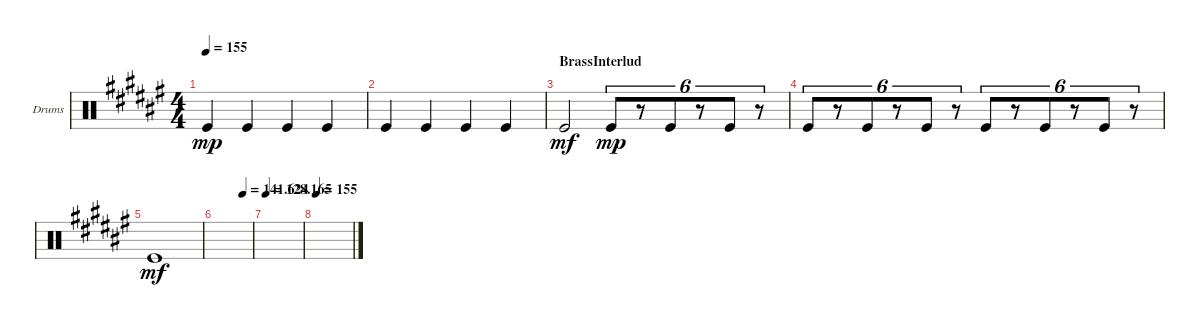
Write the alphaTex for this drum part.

\bracketExtendMode groupsimilarinstruments
\firstSystemTrackNameOrientation horizontal
\otherSystemsTrackNameOrientation horizontal
\track ("Kick" "Drums") {instrument percussion}
\staff {score}
\articulation defaults
\ts (4 4)
\tempo 155
\clef neutral
\ks f# "Kick (hit)".4{dy mp} "Kick (hit)".4 "Kick (hit)".4 "Kick (hit)".4
|
"Kick (hit)".4 "Kick (hit)".4 "Kick (hit)".4 "Kick (hit)".4 |
\section ("" "BrassInterlud")
"Kick (hit)".2{dy mf} "Kick (hit)".8{tu (6 4) dy mp} r.8{tu (6 4)} "Kick (hit)".8{tu (6 4)} r.8{tu (6 4)} "Kick (hit)".8{tu (6 4)} r.8{tu (6 4)} |
"Kick (hit)".8{tu (6 4)} r.8{tu (6 4)} "Kick (hit)".8{tu (6 4)} r.8{tu (6 4)} "Kick (hit)".8{tu (6 4)} r.8{tu (6 4)} "Kick (hit)".8{tu (6 4)} r.8{tu (6 4)} "Kick (hit)".8{tu (6 4)} r.8{tu (6 4)} "Kick (hit)".8{tu (6 4)} r.8{tu (6 4)} |
"Kick (hit)".1{dy mf} |
\tempo (141.624 0.75)
|
\tempo
128.165 |
\tempo (155 0.00625)
